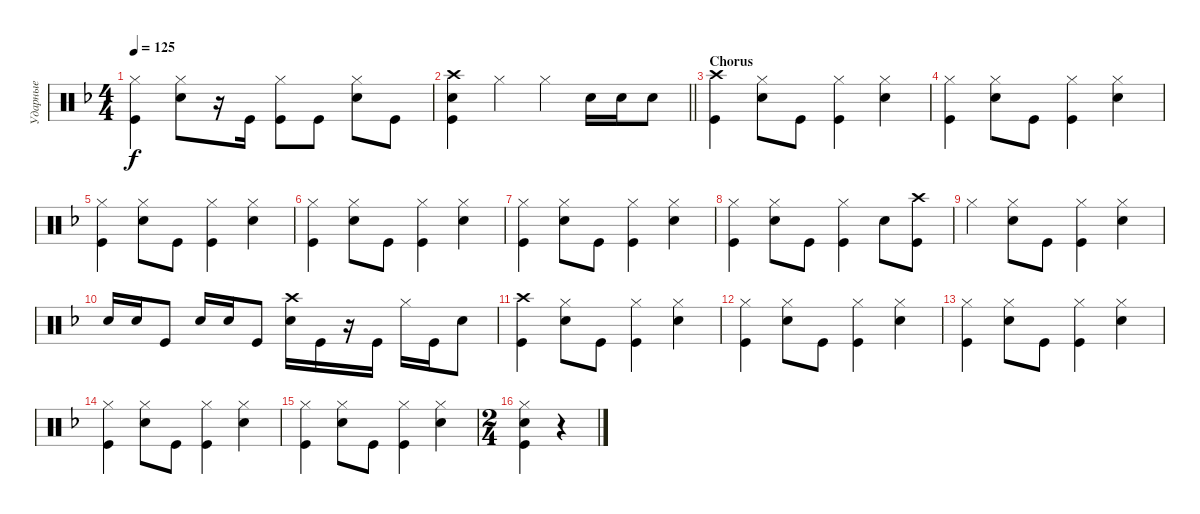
\track ("Ударные" "Ударные") {instrument percussion}
\staff {score}
\articulation defaults
\ts (4 4)
\tempo 125
\clef neutral
\ks dminor
("Hi-Hat (closed)" "Kick (hit)").4{dy f} ("Hi-Hat (closed)" "Snare (hit) 2").8 r.16 "Kick (hit)".16 ("Kick (hit)" "Hi-Hat (closed)").8 "Kick (hit)".8 ("Snare (hit) 2" "Hi-Hat (closed)").8 "Kick (hit)".8 |
\barLineRight lightlight
("Kick (hit)" "Crash high (hit)" "Snare (hit) 2").4 "Hi-Hat (closed)".4 "Hi-Hat (closed)".4 "Snare (hit) 2".16 "Snare (hit) 2".16 "Snare (hit) 2".8 |
\section ("" "Chorus")
("Crash high (hit)" "Kick (hit)").4 ("Hi-Hat (closed)" "Snare (hit) 2").8 "Kick (hit)".8 ("Hi-Hat (closed)" "Kick (hit)").4 ("Hi-Hat (closed)" "Snare (hit) 2").4 |
("Hi-Hat (closed)" "Kick (hit)").4 ("Hi-Hat (closed)" "Snare (hit) 2").8 "Kick (hit)".8 ("Hi-Hat (closed)" "Kick (hit)").4 ("Hi-Hat (closed)" "Snare (hit) 2").4 |
("Hi-Hat (closed)" "Kick (hit)").4 ("Hi-Hat (closed)" "Snare (hit) 2").8 "Kick (hit)".8 ("Hi-Hat (closed)" "Kick (hit)").4 ("Hi-Hat (closed)" "Snare (hit) 2").4 |
("Hi-Hat (closed)" "Kick (hit)").4 ("Hi-Hat (closed)" "Snare (hit) 2").8 "Kick (hit)".8 ("Hi-Hat (closed)" "Kick (hit)").4 ("Hi-Hat (closed)" "Snare (hit) 2").4 |
("Hi-Hat (closed)" "Kick (hit)").4 ("Hi-Hat (closed)" "Snare (hit) 2").8 "Kick (hit)".8 ("Hi-Hat (closed)" "Kick (hit)").4 ("Hi-Hat (closed)" "Snare (hit) 2").4 |
("Hi-Hat (closed)" "Kick (hit)").4 ("Hi-Hat (closed)" "Snare (hit) 2").8 "Kick (hit)".8 ("Hi-Hat (closed)" "Kick (hit)").4 "Snare (hit) 2".8 ("Kick (hit)" "Crash high (hit)").8 |
"Hi-Hat (closed)".4 ("Hi-Hat (closed)" "Snare (hit) 2").8 "Kick (hit)".8 ("Hi-Hat (closed)" "Kick (hit)").4 ("Hi-Hat (closed)" "Snare (hit) 2").4 |
"Snare (hit) 2".16 "Snare (hit) 2".16 "Kick (hit)".8 "Snare (hit) 2".16 "Snare (hit) 2".16 "Kick (hit)".8 ("Snare (hit) 2" "Crash high (hit)").16 "Kick (hit)".16 r.16 "Kick (hit)".16 "Hi-Hat (closed)".16 "Kick (hit)".16 "Snare (hit) 2".8 |
("Crash high (hit)" "Kick (hit)").4 ("Hi-Hat (closed)" "Snare (hit) 2").8 "Kick (hit)".8 ("Hi-Hat (closed)" "Kick (hit)").4 ("Hi-Hat (closed)" "Snare (hit) 2").4 |
("Hi-Hat (closed)" "Kick (hit)").4 ("Hi-Hat (closed)" "Snare (hit) 2").8 "Kick (hit)".8 ("Hi-Hat (closed)" "Kick (hit)").4 ("Hi-Hat (closed)" "Snare (hit) 2").4 |
("Hi-Hat (closed)" "Kick (hit)").4 ("Hi-Hat (closed)" "Snare (hit) 2").8 "Kick (hit)".8 ("Hi-Hat (closed)" "Kick (hit)").4 ("Hi-Hat (closed)" "Snare (hit) 2").4 |
("Hi-Hat (closed)" "Kick (hit)").4 ("Hi-Hat (closed)" "Snare (hit) 2").8 "Kick (hit)".8 ("Hi-Hat (closed)" "Kick (hit)").4 ("Hi-Hat (closed)" "Snare (hit) 2").4 |
("Hi-Hat (closed)" "Kick (hit)").4 ("Hi-Hat (closed)" "Snare (hit) 2").8 "Kick (hit)".8 ("Hi-Hat (closed)" "Kick (hit)").4 ("Hi-Hat (closed)" "Snare (hit) 2").4 |
\ts (2 4)
("Snare (hit) 2" "Kick (hit)" "Hi-Hat (closed)").4 r.4
